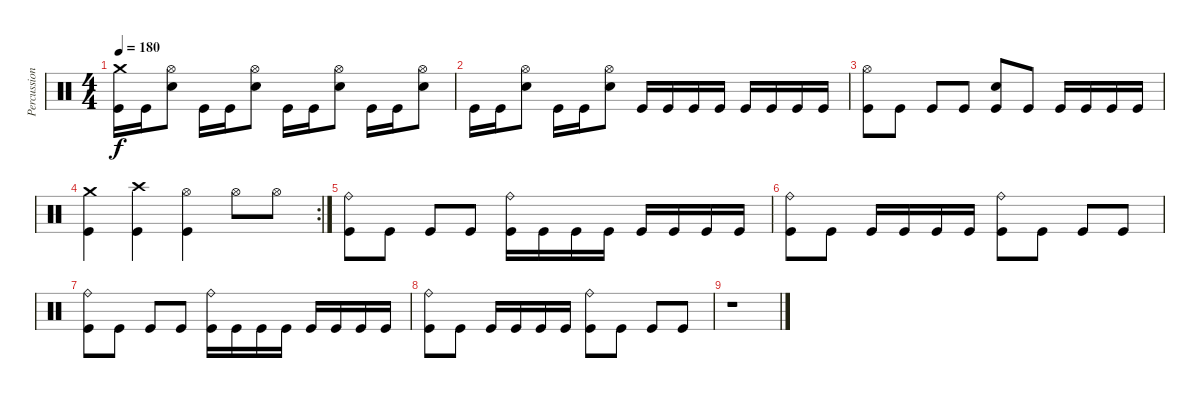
\track ("Percussions" "Percussion") {instrument percussion}
\staff {score}
\articulation defaults
\ts (4 4)
\tempo 180
\clef neutral
\ks c
("Crash medium (hit)" "Kick (hit)").16{dy f} "Kick (hit)".16 ("Hi-Hat (open)" "Snare (hit) 2").8 "Kick (hit)".16 "Kick (hit)".16 ("Hi-Hat (open)" "Snare (hit) 2").8 "Kick (hit)".16 "Kick (hit)".16 ("Hi-Hat (open)" "Snare (hit) 2").8 "Kick (hit)".16 "Kick (hit)".16 ("Hi-Hat (open)" "Snare (hit) 2").8 |
"Kick (hit)".16 "Kick (hit)".16 ("Hi-Hat (open)" "Snare (hit) 2").8 "Kick (hit)".16 "Kick (hit)".16 ("Hi-Hat (open)" "Snare (hit) 2").8 "Kick (hit)".16 "Kick (hit)".16 "Kick (hit)".16 "Kick (hit)".16 "Kick (hit)".16 "Kick (hit)".16 "Kick (hit)".16 "Kick (hit)".16 |
("Hi-Hat (open)" "Kick (hit)").8 "Kick (hit)".8 "Kick (hit)".8 "Kick (hit)".8 ("Snare (hit) 2" "Kick (hit)").8 "Kick (hit)".8 "Kick (hit)".16 "Kick (hit)".16 "Kick (hit)".16 "Kick (hit)".16 |
\rc 2
("Crash medium (hit)" "Kick (hit)").4 ("Crash high (hit)" "Kick (hit)").4 ("Hi-Hat (open)" "Kick (hit)").4 "Hi-Hat (open)".8 "Hi-Hat (open)".8 |
("Ride (bell)" "Kick (hit)").8 "Kick (hit)".8 "Kick (hit)".8 "Kick (hit)".8 ("Ride (bell)" "Kick (hit)").16 "Kick (hit)".16 "Kick (hit)".16 "Kick (hit)".16 "Kick (hit)".16 "Kick (hit)".16 "Kick (hit)".16 "Kick (hit)".16 |
("Ride (bell)" "Kick (hit)").8 "Kick (hit)".8 "Kick (hit)".16 "Kick (hit)".16 "Kick (hit)".16 "Kick (hit)".16 ("Ride (bell)" "Kick (hit)").8 "Kick (hit)".8 "Kick (hit)".8 "Kick (hit)".8 |
("Ride (bell)" "Kick (hit)").8 "Kick (hit)".8 "Kick (hit)".8 "Kick (hit)".8 ("Ride (bell)" "Kick (hit)").16 "Kick (hit)".16 "Kick (hit)".16 "Kick (hit)".16 "Kick (hit)".16 "Kick (hit)".16 "Kick (hit)".16 "Kick (hit)".16 |
("Ride (bell)" "Kick (hit)").8 "Kick (hit)".8 "Kick (hit)".16 "Kick (hit)".16 "Kick (hit)".16 "Kick (hit)".16 ("Ride (bell)" "Kick (hit)").8 "Kick (hit)".8 "Kick (hit)".8 "Kick (hit)".8 |
r.1
